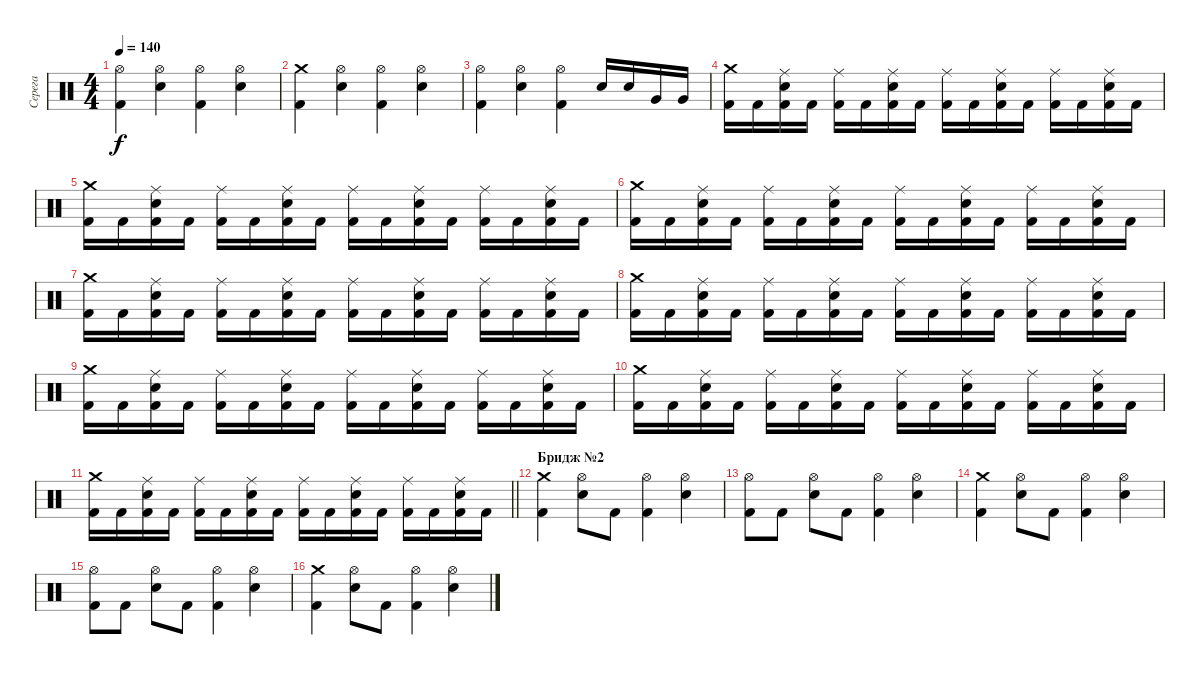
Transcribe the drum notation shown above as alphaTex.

\track ("Серега" "Серега") {instrument percussion}
\staff {score}
\articulation defaults
\ts (4 4)
\tempo 140
\clef neutral
\ks c
("Hi-Hat (open)" "Kick (hit) 2").4{dy f} ("Hi-Hat (open)" "Electric Snare (hit)").4 ("Hi-Hat (open)" "Kick (hit) 2").4 ("Hi-Hat (open)" "Electric Snare (hit)").4 |
("Crash medium (hit)" "Kick (hit) 2").4 ("Hi-Hat (open)" "Electric Snare (hit)").4 ("Hi-Hat (open)" "Kick (hit) 2").4 ("Hi-Hat (open)" "Electric Snare (hit)").4 |
("Hi-Hat (open)" "Kick (hit) 2").4 ("Hi-Hat (open)" "Electric Snare (hit)").4 ("Hi-Hat (open)" "Kick (hit) 2").4 "Electric Snare (hit)".16 "Electric Snare (hit)".16 "Very Low Tom (hit)".16 "Very Low Tom (hit)".16 |
("Kick (hit) 2" "Crash medium (hit)").16 "Kick (hit) 2".16 ("Kick (hit) 2" "Electric Snare (hit)" "Ride (middle)").16 "Kick (hit) 2".16 ("Kick (hit) 2" "Ride (middle)").16 "Kick (hit) 2".16 ("Kick (hit) 2" "Electric Snare (hit)" "Ride (middle)").16 "Kick (hit) 2".16 ("Kick (hit) 2" "Ride (middle)").16 "Kick (hit) 2".16 ("Kick (hit) 2" "Electric Snare (hit)" "Ride (middle)").16 "Kick (hit) 2".16 ("Kick (hit) 2" "Ride (middle)").16 "Kick (hit) 2".16 ("Kick (hit) 2" "Electric Snare (hit)" "Ride (middle)").16 "Kick (hit) 2".16 |
("Kick (hit) 2" "Crash medium (hit)").16 "Kick (hit) 2".16 ("Kick (hit) 2" "Electric Snare (hit)" "Ride (middle)").16 "Kick (hit) 2".16 ("Kick (hit) 2" "Ride (middle)").16 "Kick (hit) 2".16 ("Kick (hit) 2" "Electric Snare (hit)" "Ride (middle)").16 "Kick (hit) 2".16 ("Kick (hit) 2" "Ride (middle)").16 "Kick (hit) 2".16 ("Kick (hit) 2" "Electric Snare (hit)" "Ride (middle)").16 "Kick (hit) 2".16 ("Kick (hit) 2" "Ride (middle)").16 "Kick (hit) 2".16 ("Kick (hit) 2" "Electric Snare (hit)" "Ride (middle)").16 "Kick (hit) 2".16 |
("Kick (hit) 2" "Crash medium (hit)").16 "Kick (hit) 2".16 ("Kick (hit) 2" "Electric Snare (hit)" "Ride (middle)").16 "Kick (hit) 2".16 ("Kick (hit) 2" "Ride (middle)").16 "Kick (hit) 2".16 ("Kick (hit) 2" "Electric Snare (hit)" "Ride (middle)").16 "Kick (hit) 2".16 ("Kick (hit) 2" "Ride (middle)").16 "Kick (hit) 2".16 ("Kick (hit) 2" "Electric Snare (hit)" "Ride (middle)").16 "Kick (hit) 2".16 ("Kick (hit) 2" "Ride (middle)").16 "Kick (hit) 2".16 ("Kick (hit) 2" "Electric Snare (hit)" "Ride (middle)").16 "Kick (hit) 2".16 |
("Kick (hit) 2" "Crash medium (hit)").16 "Kick (hit) 2".16 ("Kick (hit) 2" "Electric Snare (hit)" "Ride (middle)").16 "Kick (hit) 2".16 ("Kick (hit) 2" "Ride (middle)").16 "Kick (hit) 2".16 ("Kick (hit) 2" "Electric Snare (hit)" "Ride (middle)").16 "Kick (hit) 2".16 ("Kick (hit) 2" "Ride (middle)").16 "Kick (hit) 2".16 ("Kick (hit) 2" "Electric Snare (hit)" "Ride (middle)").16 "Kick (hit) 2".16 ("Kick (hit) 2" "Ride (middle)").16 "Kick (hit) 2".16 ("Kick (hit) 2" "Electric Snare (hit)" "Ride (middle)").16 "Kick (hit) 2".16 |
("Kick (hit) 2" "Crash medium (hit)").16 "Kick (hit) 2".16 ("Kick (hit) 2" "Electric Snare (hit)" "Ride (middle)").16 "Kick (hit) 2".16 ("Kick (hit) 2" "Ride (middle)").16 "Kick (hit) 2".16 ("Kick (hit) 2" "Electric Snare (hit)" "Ride (middle)").16 "Kick (hit) 2".16 ("Kick (hit) 2" "Ride (middle)").16 "Kick (hit) 2".16 ("Kick (hit) 2" "Electric Snare (hit)" "Ride (middle)").16 "Kick (hit) 2".16 ("Kick (hit) 2" "Ride (middle)").16 "Kick (hit) 2".16 ("Kick (hit) 2" "Electric Snare (hit)" "Ride (middle)").16 "Kick (hit) 2".16 |
("Kick (hit) 2" "Crash medium (hit)").16 "Kick (hit) 2".16 ("Kick (hit) 2" "Electric Snare (hit)" "Ride (middle)").16 "Kick (hit) 2".16 ("Kick (hit) 2" "Ride (middle)").16 "Kick (hit) 2".16 ("Kick (hit) 2" "Electric Snare (hit)" "Ride (middle)").16 "Kick (hit) 2".16 ("Kick (hit) 2" "Ride (middle)").16 "Kick (hit) 2".16 ("Kick (hit) 2" "Electric Snare (hit)" "Ride (middle)").16 "Kick (hit) 2".16 ("Kick (hit) 2" "Ride (middle)").16 "Kick (hit) 2".16 ("Kick (hit) 2" "Electric Snare (hit)" "Ride (middle)").16 "Kick (hit) 2".16 |
("Kick (hit) 2" "Crash medium (hit)").16 "Kick (hit) 2".16 ("Kick (hit) 2" "Electric Snare (hit)" "Ride (middle)").16 "Kick (hit) 2".16 ("Kick (hit) 2" "Ride (middle)").16 "Kick (hit) 2".16 ("Kick (hit) 2" "Electric Snare (hit)" "Ride (middle)").16 "Kick (hit) 2".16 ("Kick (hit) 2" "Ride (middle)").16 "Kick (hit) 2".16 ("Kick (hit) 2" "Electric Snare (hit)" "Ride (middle)").16 "Kick (hit) 2".16 ("Kick (hit) 2" "Ride (middle)").16 "Kick (hit) 2".16 ("Kick (hit) 2" "Electric Snare (hit)" "Ride (middle)").16 "Kick (hit) 2".16 |
\barLineRight lightlight
("Kick (hit) 2" "Crash medium (hit)").16 "Kick (hit) 2".16 ("Kick (hit) 2" "Electric Snare (hit)" "Ride (middle)").16 "Kick (hit) 2".16 ("Kick (hit) 2" "Ride (middle)").16 "Kick (hit) 2".16 ("Kick (hit) 2" "Electric Snare (hit)" "Ride (middle)").16 "Kick (hit) 2".16 ("Kick (hit) 2" "Ride (middle)").16 "Kick (hit) 2".16 ("Kick (hit) 2" "Electric Snare (hit)" "Ride (middle)").16 "Kick (hit) 2".16 ("Kick (hit) 2" "Ride (middle)").16 "Kick (hit) 2".16 ("Kick (hit) 2" "Electric Snare (hit)" "Ride (middle)").16 "Kick (hit) 2".16 |
\section ("" "Бридж №2")
("Crash medium (hit)" "Kick (hit) 2").4 ("Hi-Hat (open)" "Electric Snare (hit)").8 "Kick (hit) 2".8 ("Hi-Hat (open)" "Kick (hit) 2").4 ("Hi-Hat (open)" "Electric Snare (hit)").4 |
("Hi-Hat (open)" "Kick (hit) 2").8 "Kick (hit) 2".8 ("Hi-Hat (open)" "Electric Snare (hit)").8 "Kick (hit) 2".8 ("Hi-Hat (open)" "Kick (hit) 2").4 ("Hi-Hat (open)" "Electric Snare (hit)").4 |
("Crash medium (hit)" "Kick (hit) 2").4 ("Hi-Hat (open)" "Electric Snare (hit)").8 "Kick (hit) 2".8 ("Hi-Hat (open)" "Kick (hit) 2").4 ("Hi-Hat (open)" "Electric Snare (hit)").4 |
("Hi-Hat (open)" "Kick (hit) 2").8 "Kick (hit) 2".8 ("Hi-Hat (open)" "Electric Snare (hit)").8 "Kick (hit) 2".8 ("Hi-Hat (open)" "Kick (hit) 2").4 ("Hi-Hat (open)" "Electric Snare (hit)").4 |
("Crash medium (hit)" "Kick (hit) 2").4 ("Hi-Hat (open)" "Electric Snare (hit)").8 "Kick (hit) 2".8 ("Hi-Hat (open)" "Kick (hit) 2").4 ("Hi-Hat (open)" "Electric Snare (hit)").4
